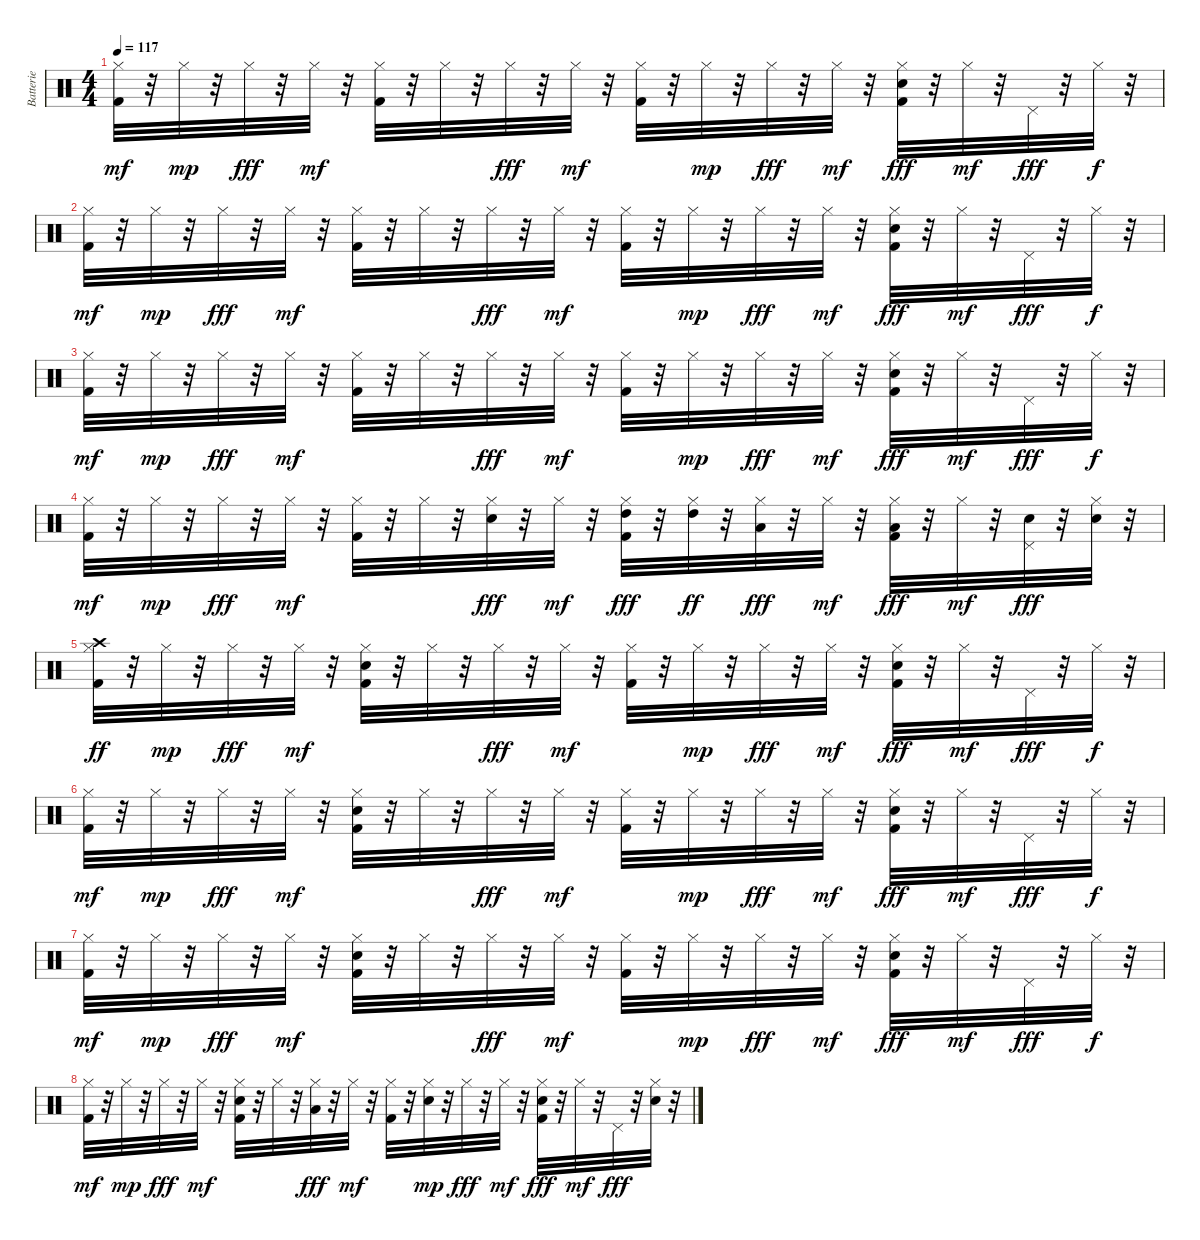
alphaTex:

\track ("Batterie" "Batterie") {instrument percussion}
\staff {score}
\articulation defaults
\ts (4 4)
\tempo 117
\clef neutral
\ks c
("Kick (hit) 2" "Hi-Hat (closed)").32{dy mf} r.32 "Hi-Hat (closed)".32{dy mp} r.32 "Hi-Hat (closed)".32{dy fff} r.32 "Hi-Hat (closed)".32{dy mf} r.32 ("Kick (hit) 2" "Hi-Hat (closed)").32 r.32 "Hi-Hat (closed)".32 r.32 "Hi-Hat (closed)".32{dy fff} r.32 "Hi-Hat (closed)".32{dy mf} r.32 ("Kick (hit) 2" "Hi-Hat (closed)").32 r.32 "Hi-Hat (closed)".32{dy mp} r.32 "Hi-Hat (closed)".32{dy fff} r.32 "Hi-Hat (closed)".32{dy mf} r.32 ("Kick (hit) 2" "Electric Snare (hit)" "Hi-Hat (closed)").32{dy fff} r.32 "Hi-Hat (closed)".32{dy mf} r.32 "Pedal Hi-Hat (hit)".32{dy fff} r.32 "Hi-Hat (closed)".32{dy f} r.32 |
("Kick (hit) 2" "Hi-Hat (closed)").32{dy mf} r.32 "Hi-Hat (closed)".32{dy mp} r.32 "Hi-Hat (closed)".32{dy fff} r.32 "Hi-Hat (closed)".32{dy mf} r.32 ("Kick (hit) 2" "Hi-Hat (closed)").32 r.32 "Hi-Hat (closed)".32 r.32 "Hi-Hat (closed)".32{dy fff} r.32 "Hi-Hat (closed)".32{dy mf} r.32 ("Kick (hit) 2" "Hi-Hat (closed)").32 r.32 "Hi-Hat (closed)".32{dy mp} r.32 "Hi-Hat (closed)".32{dy fff} r.32 "Hi-Hat (closed)".32{dy mf} r.32 ("Kick (hit) 2" "Electric Snare (hit)" "Hi-Hat (closed)").32{dy fff} r.32 "Hi-Hat (closed)".32{dy mf} r.32 "Pedal Hi-Hat (hit)".32{dy fff} r.32 "Hi-Hat (closed)".32{dy f} r.32 |
("Kick (hit) 2" "Hi-Hat (closed)").32{dy mf} r.32 "Hi-Hat (closed)".32{dy mp} r.32 "Hi-Hat (closed)".32{dy fff} r.32 "Hi-Hat (closed)".32{dy mf} r.32 ("Kick (hit) 2" "Hi-Hat (closed)").32 r.32 "Hi-Hat (closed)".32 r.32 "Hi-Hat (closed)".32{dy fff} r.32 "Hi-Hat (closed)".32{dy mf} r.32 ("Kick (hit) 2" "Hi-Hat (closed)").32 r.32 "Hi-Hat (closed)".32{dy mp} r.32 "Hi-Hat (closed)".32{dy fff} r.32 "Hi-Hat (closed)".32{dy mf} r.32 ("Kick (hit) 2" "Electric Snare (hit)" "Hi-Hat (closed)").32{dy fff} r.32 "Hi-Hat (closed)".32{dy mf} r.32 "Pedal Hi-Hat (hit)".32{dy fff} r.32 "Hi-Hat (closed)".32{dy f} r.32 |
("Kick (hit) 2" "Hi-Hat (closed)").32{dy mf} r.32 "Hi-Hat (closed)".32{dy mp} r.32 "Hi-Hat (closed)".32{dy fff} r.32 "Hi-Hat (closed)".32{dy mf} r.32 ("Kick (hit) 2" "Hi-Hat (closed)").32 r.32 "Hi-Hat (closed)".32 r.32 ("Electric Snare (hit)" "Hi-Hat (closed)").32{dy fff} r.32 "Hi-Hat (closed)".32{dy mf} r.32 ("Kick (hit) 2" "Hi-Hat (closed)" "High Tom (hit)").32{dy fff} r.32 ("Hi-Hat (closed)" "High Tom (hit)").32{dy ff} r.32 ("Hi-Hat (closed)" "Low Tom (hit)").32{dy fff} r.32 "Hi-Hat (closed)".32{dy mf} r.32 ("Kick (hit) 2" "Hi-Hat (closed)" "Low Floor Tom (hit)").32{dy fff} r.32 "Hi-Hat (closed)".32{dy mf} r.32 ("Electric Snare (hit)" "Pedal Hi-Hat (hit)").32{dy fff} r.32 ("Electric Snare (hit)" "Hi-Hat (closed)").32 r.32 |
("Kick (hit) 2" "Hi-Hat (closed)" "Crash high (hit)").32{dy ff} r.32 "Hi-Hat (closed)".32{dy mp} r.32 "Hi-Hat (closed)".32{dy fff} r.32 "Hi-Hat (closed)".32{dy mf} r.32 ("Kick (hit) 2" "Electric Snare (hit)" "Hi-Hat (closed)").32 r.32 "Hi-Hat (closed)".32 r.32 "Hi-Hat (closed)".32{dy fff} r.32 "Hi-Hat (closed)".32{dy mf} r.32 ("Kick (hit) 2" "Hi-Hat (closed)").32 r.32 "Hi-Hat (closed)".32{dy mp} r.32 "Hi-Hat (closed)".32{dy fff} r.32 "Hi-Hat (closed)".32{dy mf} r.32 ("Kick (hit) 2" "Electric Snare (hit)" "Hi-Hat (closed)").32{dy fff} r.32 "Hi-Hat (closed)".32{dy mf} r.32 "Pedal Hi-Hat (hit)".32{dy fff} r.32 "Hi-Hat (closed)".32{dy f} r.32 |
("Kick (hit) 2" "Hi-Hat (closed)").32{dy mf} r.32 "Hi-Hat (closed)".32{dy mp} r.32 "Hi-Hat (closed)".32{dy fff} r.32 "Hi-Hat (closed)".32{dy mf} r.32 ("Kick (hit) 2" "Electric Snare (hit)" "Hi-Hat (closed)").32 r.32 "Hi-Hat (closed)".32 r.32 "Hi-Hat (closed)".32{dy fff} r.32 "Hi-Hat (closed)".32{dy mf} r.32 ("Kick (hit) 2" "Hi-Hat (closed)").32 r.32 "Hi-Hat (closed)".32{dy mp} r.32 "Hi-Hat (closed)".32{dy fff} r.32 "Hi-Hat (closed)".32{dy mf} r.32 ("Kick (hit) 2" "Electric Snare (hit)" "Hi-Hat (closed)").32{dy fff} r.32 "Hi-Hat (closed)".32{dy mf} r.32 "Pedal Hi-Hat (hit)".32{dy fff} r.32 "Hi-Hat (closed)".32{dy f} r.32 |
("Kick (hit) 2" "Hi-Hat (closed)").32{dy mf} r.32 "Hi-Hat (closed)".32{dy mp} r.32 "Hi-Hat (closed)".32{dy fff} r.32 "Hi-Hat (closed)".32{dy mf} r.32 ("Kick (hit) 2" "Electric Snare (hit)" "Hi-Hat (closed)").32 r.32 "Hi-Hat (closed)".32 r.32 "Hi-Hat (closed)".32{dy fff} r.32 "Hi-Hat (closed)".32{dy mf} r.32 ("Kick (hit) 2" "Hi-Hat (closed)").32 r.32 "Hi-Hat (closed)".32{dy mp} r.32 "Hi-Hat (closed)".32{dy fff} r.32 "Hi-Hat (closed)".32{dy mf} r.32 ("Kick (hit) 2" "Electric Snare (hit)" "Hi-Hat (closed)").32{dy fff} r.32 "Hi-Hat (closed)".32{dy mf} r.32 "Pedal Hi-Hat (hit)".32{dy fff} r.32 "Hi-Hat (closed)".32{dy f} r.32 |
("Kick (hit) 2" "Hi-Hat (closed)").32{dy mf} r.32 "Hi-Hat (closed)".32{dy mp} r.32 "Hi-Hat (closed)".32{dy fff} r.32 "Hi-Hat (closed)".32{dy mf} r.32 ("Kick (hit) 2" "Electric Snare (hit)" "Hi-Hat (closed)").32 r.32 "Hi-Hat (closed)".32 r.32 ("Hi-Hat (closed)" "Low Tom (hit)").32{dy fff} r.32 "Hi-Hat (closed)".32{dy mf} r.32 ("Kick (hit) 2" "Hi-Hat (closed)").32 r.32 ("Electric Snare (hit)" "Hi-Hat (closed)").32{dy mp} r.32 "Hi-Hat (closed)".32{dy fff} r.32 "Hi-Hat (closed)".32{dy mf} r.32 ("Kick (hit) 2" "Electric Snare (hit)" "Hi-Hat (closed)").32{dy fff} r.32 "Hi-Hat (closed)".32{dy mf} r.32 "Pedal Hi-Hat (hit)".32{dy fff} r.32 ("Electric Snare (hit)" "Hi-Hat (closed)").32 r.32
